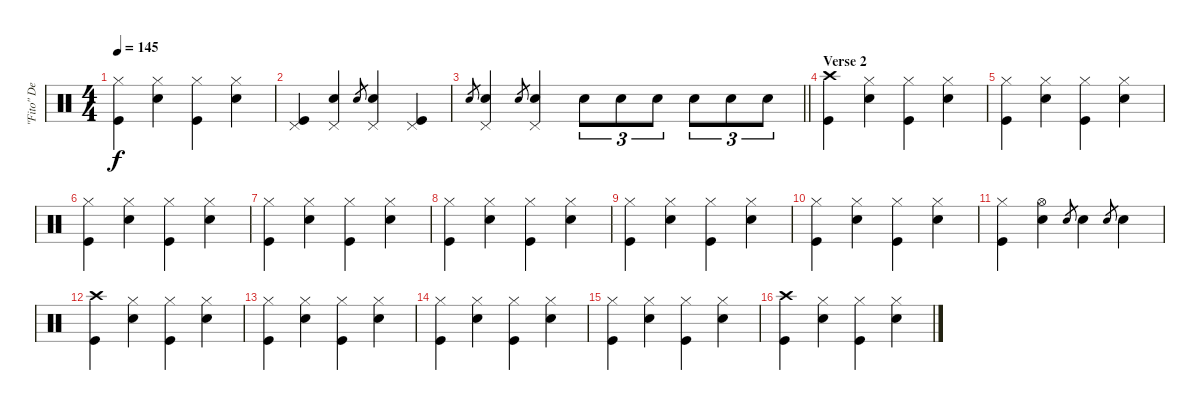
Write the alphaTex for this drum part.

\track ("\"Fito\" De La Parra" "\"Fito\" De ") {instrument percussion}
\staff {score}
\articulation defaults
\ts (4 4)
\tempo 145
\clef neutral
\ks c
("Hi-Hat (closed)" "Kick (hit)").4{dy f} ("Hi-Hat (closed)" "Snare (hit) 2").4 ("Hi-Hat (closed)" "Kick (hit)").4 ("Hi-Hat (closed)" "Snare (hit) 2").4 |
("Pedal Hi-Hat (hit)" "Kick (hit)").4 ("Pedal Hi-Hat (hit)" "Snare (hit) 2").4 "Snare (hit) 2".8{gr} ("Pedal Hi-Hat (hit)" "Snare (hit) 2").4 ("Pedal Hi-Hat (hit)" "Kick (hit)").4 |
\barLineRight lightlight "Snare (hit) 2".8{gr}
("Pedal Hi-Hat (hit)" "Snare (hit) 2").4 "Snare (hit) 2".8{gr} ("Pedal Hi-Hat (hit)" "Snare (hit) 2").4 "Snare (hit) 2".8{tu (3 2)} "Snare (hit) 2".8{tu (3 2)} "Snare (hit) 2".8{tu (3 2)} "Snare (hit) 2".8{tu (3 2)} "Snare (hit) 2".8{tu (3 2)} "Snare (hit) 2".8{tu (3 2)} |
\section ("" "Verse 2")
("Crash high (hit)" "Kick (hit)").4 ("Hi-Hat (closed)" "Snare (hit) 2").4 ("Hi-Hat (closed)" "Kick (hit)").4 ("Hi-Hat (closed)" "Snare (hit) 2").4 |
("Hi-Hat (closed)" "Kick (hit)").4 ("Hi-Hat (closed)" "Snare (hit) 2").4 ("Hi-Hat (closed)" "Kick (hit)").4 ("Hi-Hat (closed)" "Snare (hit) 2").4 |
("Hi-Hat (closed)" "Kick (hit)").4 ("Hi-Hat (closed)" "Snare (hit) 2").4 ("Hi-Hat (closed)" "Kick (hit)").4 ("Hi-Hat (closed)" "Snare (hit) 2").4 |
("Hi-Hat (closed)" "Kick (hit)").4 ("Hi-Hat (closed)" "Snare (hit) 2").4 ("Hi-Hat (closed)" "Kick (hit)").4 ("Hi-Hat (closed)" "Snare (hit) 2").4 |
("Hi-Hat (closed)" "Kick (hit)").4 ("Hi-Hat (closed)" "Snare (hit) 2").4 ("Hi-Hat (closed)" "Kick (hit)").4 ("Hi-Hat (closed)" "Snare (hit) 2").4 |
("Hi-Hat (closed)" "Kick (hit)").4 ("Hi-Hat (closed)" "Snare (hit) 2").4 ("Hi-Hat (closed)" "Kick (hit)").4 ("Hi-Hat (closed)" "Snare (hit) 2").4 |
("Hi-Hat (closed)" "Kick (hit)").4 ("Hi-Hat (closed)" "Snare (hit) 2").4 ("Hi-Hat (closed)" "Kick (hit)").4 ("Hi-Hat (closed)" "Snare (hit) 2").4 |
("Hi-Hat (closed)" "Kick (hit)").4 ("Hi-Hat (open)" "Snare (hit) 2").4 "Snare (hit) 2".8{gr} "Snare (hit) 2".4 "Snare (hit) 2".8{gr} "Snare (hit) 2".4 |
("Crash high (hit)" "Kick (hit)").4 ("Hi-Hat (closed)" "Snare (hit) 2").4 ("Hi-Hat (closed)" "Kick (hit)").4 ("Hi-Hat (closed)" "Snare (hit) 2").4 |
("Hi-Hat (closed)" "Kick (hit)").4 ("Hi-Hat (closed)" "Snare (hit) 2").4 ("Hi-Hat (closed)" "Kick (hit)").4 ("Hi-Hat (closed)" "Snare (hit) 2").4 |
("Hi-Hat (closed)" "Kick (hit)").4 ("Hi-Hat (closed)" "Snare (hit) 2").4 ("Hi-Hat (closed)" "Kick (hit)").4 ("Hi-Hat (closed)" "Snare (hit) 2").4 |
("Hi-Hat (closed)" "Kick (hit)").4 ("Hi-Hat (closed)" "Snare (hit) 2").4 ("Hi-Hat (closed)" "Kick (hit)").4 ("Hi-Hat (closed)" "Snare (hit) 2").4 |
("Crash high (hit)" "Kick (hit)").4 ("Hi-Hat (closed)" "Snare (hit) 2").4 ("Hi-Hat (closed)" "Kick (hit)").4 ("Hi-Hat (closed)" "Snare (hit) 2").4
